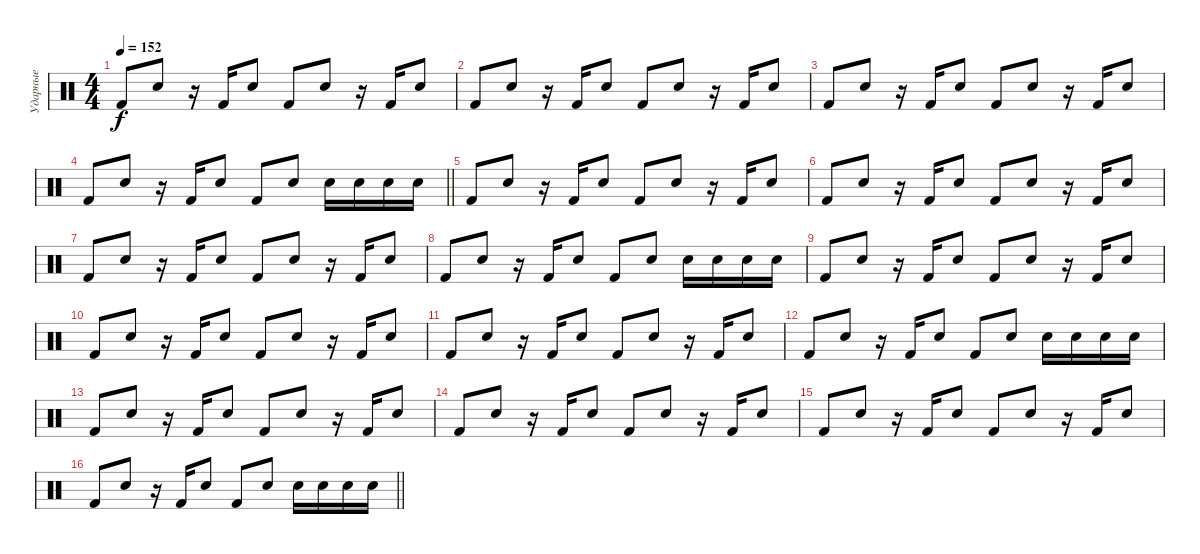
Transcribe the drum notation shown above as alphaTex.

\track ("Ударные" "Ударные") {instrument percussion}
\staff {score}
\articulation defaults
\ts (4 4)
\tempo 152
\clef neutral
\ks c "Kick (hit) 2".8{dy f} "Snare (hit) 2".8
r.16 "Kick (hit) 2".16 "Snare (hit) 2".8 "Kick (hit) 2".8 "Snare (hit) 2".8 r.16 "Kick (hit) 2".16 "Snare (hit) 2".8 |
"Kick (hit) 2".8 "Snare (hit) 2".8 r.16 "Kick (hit) 2".16 "Snare (hit) 2".8 "Kick (hit) 2".8 "Snare (hit) 2".8 r.16 "Kick (hit) 2".16 "Snare (hit) 2".8 |
"Kick (hit) 2".8 "Snare (hit) 2".8 r.16 "Kick (hit) 2".16 "Snare (hit) 2".8 "Kick (hit) 2".8 "Snare (hit) 2".8 r.16 "Kick (hit) 2".16 "Snare (hit) 2".8 |
\barLineRight lightlight "Kick (hit) 2".8 "Snare (hit) 2".8
r.16 "Kick (hit) 2".16 "Snare (hit) 2".8 "Kick (hit) 2".8 "Snare (hit) 2".8 "Snare (hit) 2".16 "Snare (hit) 2".16 "Snare (hit) 2".16 "Snare (hit) 2".16 |
"Kick (hit) 2".8 "Snare (hit) 2".8 r.16 "Kick (hit) 2".16 "Snare (hit) 2".8 "Kick (hit) 2".8 "Snare (hit) 2".8 r.16 "Kick (hit) 2".16 "Snare (hit) 2".8 |
"Kick (hit) 2".8 "Snare (hit) 2".8 r.16 "Kick (hit) 2".16 "Snare (hit) 2".8 "Kick (hit) 2".8 "Snare (hit) 2".8 r.16 "Kick (hit) 2".16 "Snare (hit) 2".8 |
"Kick (hit) 2".8 "Snare (hit) 2".8 r.16 "Kick (hit) 2".16 "Snare (hit) 2".8 "Kick (hit) 2".8 "Snare (hit) 2".8 r.16 "Kick (hit) 2".16 "Snare (hit) 2".8 |
"Kick (hit) 2".8 "Snare (hit) 2".8 r.16 "Kick (hit) 2".16 "Snare (hit) 2".8 "Kick (hit) 2".8 "Snare (hit) 2".8 "Snare (hit) 2".16 "Snare (hit) 2".16 "Snare (hit) 2".16 "Snare (hit) 2".16 |
"Kick (hit) 2".8 "Snare (hit) 2".8 r.16 "Kick (hit) 2".16 "Snare (hit) 2".8 "Kick (hit) 2".8 "Snare (hit) 2".8 r.16 "Kick (hit) 2".16 "Snare (hit) 2".8 |
"Kick (hit) 2".8 "Snare (hit) 2".8 r.16 "Kick (hit) 2".16 "Snare (hit) 2".8 "Kick (hit) 2".8 "Snare (hit) 2".8 r.16 "Kick (hit) 2".16 "Snare (hit) 2".8 |
"Kick (hit) 2".8 "Snare (hit) 2".8 r.16 "Kick (hit) 2".16 "Snare (hit) 2".8 "Kick (hit) 2".8 "Snare (hit) 2".8 r.16 "Kick (hit) 2".16 "Snare (hit) 2".8 |
"Kick (hit) 2".8 "Snare (hit) 2".8 r.16 "Kick (hit) 2".16 "Snare (hit) 2".8 "Kick (hit) 2".8 "Snare (hit) 2".8 "Snare (hit) 2".16 "Snare (hit) 2".16 "Snare (hit) 2".16 "Snare (hit) 2".16 |
"Kick (hit) 2".8 "Snare (hit) 2".8 r.16 "Kick (hit) 2".16 "Snare (hit) 2".8 "Kick (hit) 2".8 "Snare (hit) 2".8 r.16 "Kick (hit) 2".16 "Snare (hit) 2".8 |
"Kick (hit) 2".8 "Snare (hit) 2".8 r.16 "Kick (hit) 2".16 "Snare (hit) 2".8 "Kick (hit) 2".8 "Snare (hit) 2".8 r.16 "Kick (hit) 2".16 "Snare (hit) 2".8 |
"Kick (hit) 2".8 "Snare (hit) 2".8 r.16 "Kick (hit) 2".16 "Snare (hit) 2".8 "Kick (hit) 2".8 "Snare (hit) 2".8 r.16 "Kick (hit) 2".16 "Snare (hit) 2".8 |
\barLineRight lightlight "Kick (hit) 2".8 "Snare (hit) 2".8
r.16 "Kick (hit) 2".16 "Snare (hit) 2".8 "Kick (hit) 2".8 "Snare (hit) 2".8 "Snare (hit) 2".16 "Snare (hit) 2".16 "Snare (hit) 2".16 "Snare (hit) 2".16
